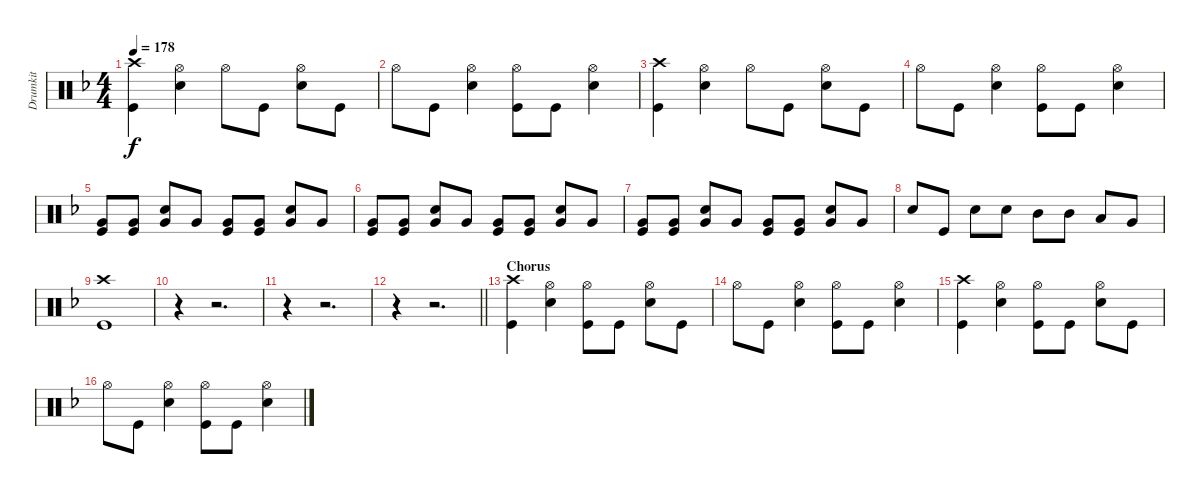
\track ("Drumkit" "Drumkit") {instrument percussion}
\staff {score}
\articulation defaults
\ts (4 4)
\tempo 178
\clef neutral
\ks f
("Crash high (hit)" "Kick (hit)").4{dy f} ("Hi-Hat (open)" "Snare (hit) 2").4 "Hi-Hat (open)".8 "Kick (hit)".8 ("Hi-Hat (open)" "Snare (hit) 2").8 "Kick (hit)".8 |
"Hi-Hat (open)".8 "Kick (hit)".8 ("Hi-Hat (open)" "Snare (hit) 2").4 ("Hi-Hat (open)" "Kick (hit)").8 "Kick (hit)".8 ("Hi-Hat (open)" "Snare (hit) 2").4 |
("Crash high (hit)" "Kick (hit)").4 ("Hi-Hat (open)" "Snare (hit) 2").4 "Hi-Hat (open)".8 "Kick (hit)".8 ("Hi-Hat (open)" "Snare (hit) 2").8 "Kick (hit)".8 |
"Hi-Hat (open)".8 "Kick (hit)".8 ("Hi-Hat (open)" "Snare (hit) 2").4 ("Hi-Hat (open)" "Kick (hit)").8 "Kick (hit)".8 ("Hi-Hat (open)" "Snare (hit) 2").4 |
("Very Low Tom (hit)" "Kick (hit)").8 ("Very Low Tom (hit)" "Kick (hit)").8 ("Very Low Tom (hit)" "Snare (hit) 2").8 "Very Low Tom (hit)".8 ("Very Low Tom (hit)" "Kick (hit)").8 ("Very Low Tom (hit)" "Kick (hit)").8 ("Very Low Tom (hit)" "Snare (hit) 2").8 "Very Low Tom (hit)".8 |
("Very Low Tom (hit)" "Kick (hit)").8 ("Very Low Tom (hit)" "Kick (hit)").8 ("Very Low Tom (hit)" "Snare (hit) 2").8 "Very Low Tom (hit)".8 ("Very Low Tom (hit)" "Kick (hit)").8 ("Very Low Tom (hit)" "Kick (hit)").8 ("Very Low Tom (hit)" "Snare (hit) 2").8 "Very Low Tom (hit)".8 |
("Very Low Tom (hit)" "Kick (hit)").8 ("Very Low Tom (hit)" "Kick (hit)").8 ("Very Low Tom (hit)" "Snare (hit) 2").8 "Very Low Tom (hit)".8 ("Very Low Tom (hit)" "Kick (hit)").8 ("Very Low Tom (hit)" "Kick (hit)").8 ("Very Low Tom (hit)" "Snare (hit) 2").8 "Very Low Tom (hit)".8 |
"Snare (hit) 2".8 "Kick (hit)".8 "Snare (hit) 2".8 "Snare (hit) 2".8 "Mid Tom (hit)".8 "Mid Tom (hit)".8 "Low Tom (hit)".8 "Very Low Tom (hit)".8 |
("Crash high (hit)" "Kick (hit)").1 |
r.4 r.2{d} |
r.4 r.2{d} |
\barLineRight lightlight
r.4 r.2{d} |
\section ("" "Chorus")
("Crash high (hit)" "Kick (hit)").4 ("Hi-Hat (open)" "Snare (hit) 2").4 ("Hi-Hat (open)" "Kick (hit)").8 "Kick (hit)".8 ("Hi-Hat (open)" "Snare (hit) 2").8 "Kick (hit)".8 |
"Hi-Hat (open)".8 "Kick (hit)".8 ("Hi-Hat (open)" "Snare (hit) 2").4 ("Hi-Hat (open)" "Kick (hit)").8 "Kick (hit)".8 ("Hi-Hat (open)" "Snare (hit) 2").4 |
("Crash high (hit)" "Kick (hit)").4 ("Hi-Hat (open)" "Snare (hit) 2").4 ("Hi-Hat (open)" "Kick (hit)").8 "Kick (hit)".8 ("Hi-Hat (open)" "Snare (hit) 2").8 "Kick (hit)".8 |
"Hi-Hat (open)".8 "Kick (hit)".8 ("Hi-Hat (open)" "Snare (hit) 2").4 ("Hi-Hat (open)" "Kick (hit)").8 "Kick (hit)".8 ("Hi-Hat (open)" "Snare (hit) 2").4
